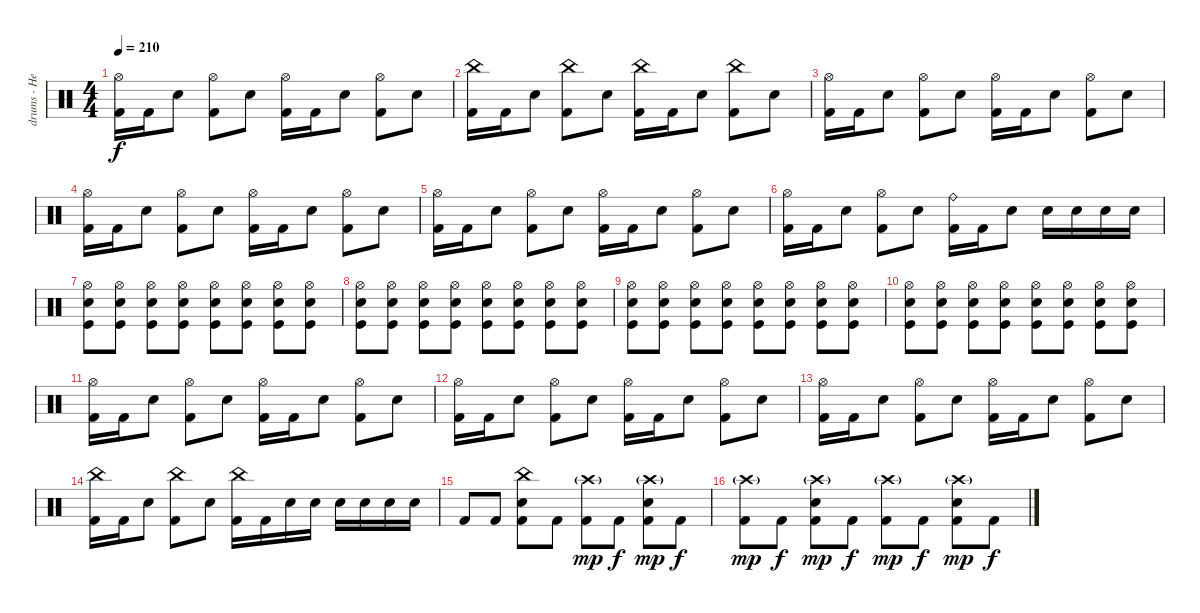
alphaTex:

\track ("drums - Heikki" "drums - He") {instrument percussion}
\staff {score}
\articulation defaults
\ts (4 4)
\tempo 210
\clef neutral
\ks c
("Hi-Hat (open)" "Kick (hit) 2").16{dy f} "Kick (hit) 2".16 "Snare (hit) 2".8 ("Hi-Hat (open)" "Kick (hit) 2").8 "Snare (hit) 2".8 ("Hi-Hat (open)" "Kick (hit) 2").16 "Kick (hit) 2".16 "Snare (hit) 2".8 ("Hi-Hat (open)" "Kick (hit) 2").8 "Snare (hit) 2".8 |
("China (hit)" "Kick (hit) 2").16 "Kick (hit) 2".16 "Snare (hit) 2".8 ("China (hit)" "Kick (hit) 2").8 "Snare (hit) 2".8 ("China (hit)" "Kick (hit) 2").16 "Kick (hit) 2".16 "Snare (hit) 2".8 ("China (hit)" "Kick (hit) 2").8 "Snare (hit) 2".8 |
("Hi-Hat (open)" "Kick (hit) 2").16 "Kick (hit) 2".16 "Snare (hit) 2".8 ("Hi-Hat (open)" "Kick (hit) 2").8 "Snare (hit) 2".8 ("Hi-Hat (open)" "Kick (hit) 2").16 "Kick (hit) 2".16 "Snare (hit) 2".8 ("Hi-Hat (open)" "Kick (hit) 2").8 "Snare (hit) 2".8 |
("Hi-Hat (open)" "Kick (hit) 2").16 "Kick (hit) 2".16 "Snare (hit) 2".8 ("Hi-Hat (open)" "Kick (hit) 2").8 "Snare (hit) 2".8 ("Hi-Hat (open)" "Kick (hit) 2").16 "Kick (hit) 2".16 "Snare (hit) 2".8 ("Hi-Hat (open)" "Kick (hit) 2").8 "Snare (hit) 2".8 |
("Hi-Hat (open)" "Kick (hit) 2").16 "Kick (hit) 2".16 "Snare (hit) 2".8 ("Hi-Hat (open)" "Kick (hit) 2").8 "Snare (hit) 2".8 ("Hi-Hat (open)" "Kick (hit) 2").16 "Kick (hit) 2".16 "Snare (hit) 2".8 ("Hi-Hat (open)" "Kick (hit) 2").8 "Snare (hit) 2".8 |
("Hi-Hat (open)" "Kick (hit) 2").16 "Kick (hit) 2".16 "Snare (hit) 2".8 ("Hi-Hat (open)" "Kick (hit) 2").8 "Snare (hit) 2".8 ("Ride (bell)" "Kick (hit) 2").16 "Kick (hit) 2".16 "Snare (hit) 2".8 "Snare (hit) 2".16 "Snare (hit) 2".16 "Snare (hit) 2".16 "Snare (hit) 2".16 |
("Hi-Hat (open)" "Snare (hit) 2" "Kick (hit)").8 ("Hi-Hat (open)" "Snare (hit) 2" "Kick (hit)").8 ("Hi-Hat (open)" "Snare (hit) 2" "Kick (hit)").8 ("Hi-Hat (open)" "Snare (hit) 2" "Kick (hit)").8 ("Hi-Hat (open)" "Snare (hit) 2" "Kick (hit)").8 ("Hi-Hat (open)" "Snare (hit) 2" "Kick (hit)").8 ("Hi-Hat (open)" "Snare (hit) 2" "Kick (hit)").8 ("Hi-Hat (open)" "Snare (hit) 2" "Kick (hit)").8 |
("Hi-Hat (open)" "Snare (hit) 2" "Kick (hit)").8 ("Hi-Hat (open)" "Snare (hit) 2" "Kick (hit)").8 ("Hi-Hat (open)" "Snare (hit) 2" "Kick (hit)").8 ("Hi-Hat (open)" "Snare (hit) 2" "Kick (hit)").8 ("Hi-Hat (open)" "Snare (hit) 2" "Kick (hit)").8 ("Hi-Hat (open)" "Snare (hit) 2" "Kick (hit)").8 ("Hi-Hat (open)" "Snare (hit) 2" "Kick (hit)").8 ("Hi-Hat (open)" "Snare (hit) 2" "Kick (hit)").8 |
("Hi-Hat (open)" "Snare (hit) 2" "Kick (hit)").8 ("Hi-Hat (open)" "Snare (hit) 2" "Kick (hit)").8 ("Hi-Hat (open)" "Snare (hit) 2" "Kick (hit)").8 ("Hi-Hat (open)" "Snare (hit) 2" "Kick (hit)").8 ("Hi-Hat (open)" "Snare (hit) 2" "Kick (hit)").8 ("Hi-Hat (open)" "Snare (hit) 2" "Kick (hit)").8 ("Hi-Hat (open)" "Snare (hit) 2" "Kick (hit)").8 ("Hi-Hat (open)" "Snare (hit) 2" "Kick (hit)").8 |
("Hi-Hat (open)" "Snare (hit) 2" "Kick (hit)").8 ("Hi-Hat (open)" "Snare (hit) 2" "Kick (hit)").8 ("Hi-Hat (open)" "Snare (hit) 2" "Kick (hit)").8 ("Hi-Hat (open)" "Snare (hit) 2" "Kick (hit)").8 ("Hi-Hat (open)" "Snare (hit) 2" "Kick (hit)").8 ("Hi-Hat (open)" "Snare (hit) 2" "Kick (hit)").8 ("Hi-Hat (open)" "Snare (hit) 2" "Kick (hit)").8 ("Hi-Hat (open)" "Snare (hit) 2" "Kick (hit)").8 |
("Hi-Hat (open)" "Kick (hit) 2").16 "Kick (hit) 2".16 "Snare (hit) 2".8 ("Hi-Hat (open)" "Kick (hit) 2").8 "Snare (hit) 2".8 ("Hi-Hat (open)" "Kick (hit) 2").16 "Kick (hit) 2".16 "Snare (hit) 2".8 ("Hi-Hat (open)" "Kick (hit) 2").8 "Snare (hit) 2".8 |
("Hi-Hat (open)" "Kick (hit) 2").16 "Kick (hit) 2".16 "Snare (hit) 2".8 ("Hi-Hat (open)" "Kick (hit) 2").8 "Snare (hit) 2".8 ("Hi-Hat (open)" "Kick (hit) 2").16 "Kick (hit) 2".16 "Snare (hit) 2".8 ("Hi-Hat (open)" "Kick (hit) 2").8 "Snare (hit) 2".8 |
("Hi-Hat (open)" "Kick (hit) 2").16 "Kick (hit) 2".16 "Snare (hit) 2".8 ("Hi-Hat (open)" "Kick (hit) 2").8 "Snare (hit) 2".8 ("Hi-Hat (open)" "Kick (hit) 2").16 "Kick (hit) 2".16 "Snare (hit) 2".8 ("Hi-Hat (open)" "Kick (hit) 2").8 "Snare (hit) 2".8 |
("China (hit)" "Kick (hit) 2").16 "Kick (hit) 2".16 "Snare (hit) 2".8 ("China (hit)" "Kick (hit) 2").8 "Snare (hit) 2".8 ("China (hit)" "Kick (hit) 2").16 "Kick (hit) 2".16 "Snare (hit) 2".16 "Snare (hit) 2".16 "Snare (hit) 2".16 "Snare (hit) 2".16 "Snare (hit) 2".16 "Snare (hit) 2".16 |
"Kick (hit) 2".8 "Kick (hit) 2".8 ("China (hit)" "Snare (hit) 2" "Kick (hit) 2").8 "Kick (hit) 2".8 ("Crash high (hit)"{g} "Kick (hit) 2").8{dy mp} "Kick (hit) 2".8{dy f} ("Crash high (hit)"{g} "Snare (hit) 2" "Kick (hit) 2").8{dy mp} "Kick (hit) 2".8{dy f} |
("Crash high (hit)"{g} "Kick (hit) 2").8{dy mp} "Kick (hit) 2".8{dy f} ("Crash high (hit)"{g} "Snare (hit) 2" "Kick (hit) 2").8{dy mp} "Kick (hit) 2".8{dy f} ("Crash high (hit)"{g} "Kick (hit) 2").8{dy mp} "Kick (hit) 2".8{dy f} ("Crash high (hit)"{g} "Snare (hit) 2" "Kick (hit) 2").8{dy mp} "Kick (hit) 2".8{dy f}
